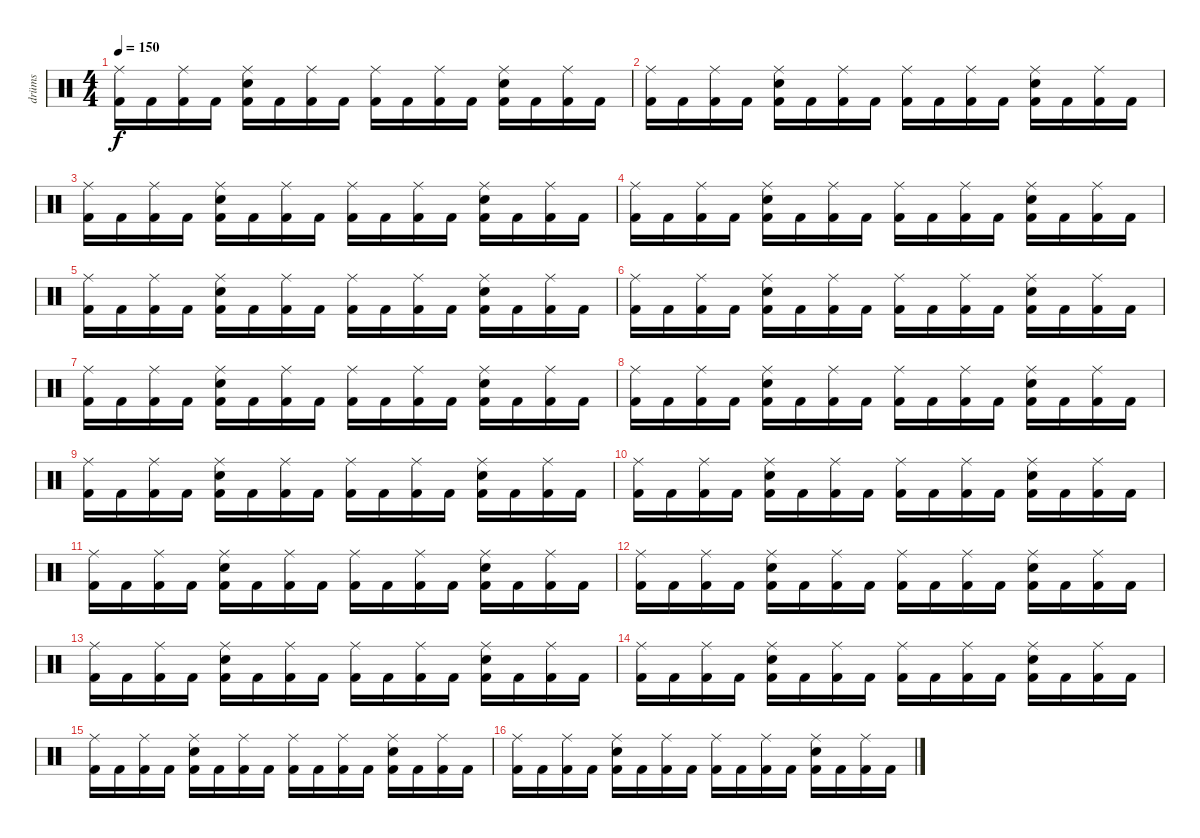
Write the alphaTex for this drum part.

\track ("drüms" "drüms") {instrument percussion}
\staff {score}
\articulation defaults
\ts (4 4)
\tempo 150
\clef neutral
\ks c
("Ride (middle)" "Kick (hit) 2").16{dy f} "Kick (hit) 2".16 ("Ride (middle)" "Kick (hit) 2").16 "Kick (hit) 2".16 ("Ride (middle)" "Electric Snare (hit)" "Kick (hit) 2").16 "Kick (hit) 2".16 ("Ride (middle)" "Kick (hit) 2").16 "Kick (hit) 2".16 ("Ride (middle)" "Kick (hit) 2").16 "Kick (hit) 2".16 ("Ride (middle)" "Kick (hit) 2").16 "Kick (hit) 2".16 ("Ride (middle)" "Electric Snare (hit)" "Kick (hit) 2").16 "Kick (hit) 2".16 ("Ride (middle)" "Kick (hit) 2").16 "Kick (hit) 2".16 |
("Ride (middle)" "Kick (hit) 2").16 "Kick (hit) 2".16 ("Ride (middle)" "Kick (hit) 2").16 "Kick (hit) 2".16 ("Ride (middle)" "Electric Snare (hit)" "Kick (hit) 2").16 "Kick (hit) 2".16 ("Ride (middle)" "Kick (hit) 2").16 "Kick (hit) 2".16 ("Ride (middle)" "Kick (hit) 2").16 "Kick (hit) 2".16 ("Ride (middle)" "Kick (hit) 2").16 "Kick (hit) 2".16 ("Ride (middle)" "Electric Snare (hit)" "Kick (hit) 2").16 "Kick (hit) 2".16 ("Ride (middle)" "Kick (hit) 2").16 "Kick (hit) 2".16 |
("Ride (middle)" "Kick (hit) 2").16 "Kick (hit) 2".16 ("Ride (middle)" "Kick (hit) 2").16 "Kick (hit) 2".16 ("Ride (middle)" "Electric Snare (hit)" "Kick (hit) 2").16 "Kick (hit) 2".16 ("Ride (middle)" "Kick (hit) 2").16 "Kick (hit) 2".16 ("Ride (middle)" "Kick (hit) 2").16 "Kick (hit) 2".16 ("Ride (middle)" "Kick (hit) 2").16 "Kick (hit) 2".16 ("Ride (middle)" "Electric Snare (hit)" "Kick (hit) 2").16 "Kick (hit) 2".16 ("Ride (middle)" "Kick (hit) 2").16 "Kick (hit) 2".16 |
("Ride (middle)" "Kick (hit) 2").16 "Kick (hit) 2".16 ("Ride (middle)" "Kick (hit) 2").16 "Kick (hit) 2".16 ("Ride (middle)" "Electric Snare (hit)" "Kick (hit) 2").16 "Kick (hit) 2".16 ("Ride (middle)" "Kick (hit) 2").16 "Kick (hit) 2".16 ("Ride (middle)" "Kick (hit) 2").16 "Kick (hit) 2".16 ("Ride (middle)" "Kick (hit) 2").16 "Kick (hit) 2".16 ("Ride (middle)" "Electric Snare (hit)" "Kick (hit) 2").16 "Kick (hit) 2".16 ("Ride (middle)" "Kick (hit) 2").16 "Kick (hit) 2".16 |
("Ride (middle)" "Kick (hit) 2").16 "Kick (hit) 2".16 ("Ride (middle)" "Kick (hit) 2").16 "Kick (hit) 2".16 ("Ride (middle)" "Electric Snare (hit)" "Kick (hit) 2").16 "Kick (hit) 2".16 ("Ride (middle)" "Kick (hit) 2").16 "Kick (hit) 2".16 ("Ride (middle)" "Kick (hit) 2").16 "Kick (hit) 2".16 ("Ride (middle)" "Kick (hit) 2").16 "Kick (hit) 2".16 ("Ride (middle)" "Electric Snare (hit)" "Kick (hit) 2").16 "Kick (hit) 2".16 ("Ride (middle)" "Kick (hit) 2").16 "Kick (hit) 2".16 |
("Ride (middle)" "Kick (hit) 2").16 "Kick (hit) 2".16 ("Ride (middle)" "Kick (hit) 2").16 "Kick (hit) 2".16 ("Ride (middle)" "Electric Snare (hit)" "Kick (hit) 2").16 "Kick (hit) 2".16 ("Ride (middle)" "Kick (hit) 2").16 "Kick (hit) 2".16 ("Ride (middle)" "Kick (hit) 2").16 "Kick (hit) 2".16 ("Ride (middle)" "Kick (hit) 2").16 "Kick (hit) 2".16 ("Ride (middle)" "Electric Snare (hit)" "Kick (hit) 2").16 "Kick (hit) 2".16 ("Ride (middle)" "Kick (hit) 2").16 "Kick (hit) 2".16 |
("Ride (middle)" "Kick (hit) 2").16 "Kick (hit) 2".16 ("Ride (middle)" "Kick (hit) 2").16 "Kick (hit) 2".16 ("Ride (middle)" "Electric Snare (hit)" "Kick (hit) 2").16 "Kick (hit) 2".16 ("Ride (middle)" "Kick (hit) 2").16 "Kick (hit) 2".16 ("Ride (middle)" "Kick (hit) 2").16 "Kick (hit) 2".16 ("Ride (middle)" "Kick (hit) 2").16 "Kick (hit) 2".16 ("Ride (middle)" "Electric Snare (hit)" "Kick (hit) 2").16 "Kick (hit) 2".16 ("Ride (middle)" "Kick (hit) 2").16 "Kick (hit) 2".16 |
("Ride (middle)" "Kick (hit) 2").16 "Kick (hit) 2".16 ("Ride (middle)" "Kick (hit) 2").16 "Kick (hit) 2".16 ("Ride (middle)" "Electric Snare (hit)" "Kick (hit) 2").16 "Kick (hit) 2".16 ("Ride (middle)" "Kick (hit) 2").16 "Kick (hit) 2".16 ("Ride (middle)" "Kick (hit) 2").16 "Kick (hit) 2".16 ("Ride (middle)" "Kick (hit) 2").16 "Kick (hit) 2".16 ("Ride (middle)" "Electric Snare (hit)" "Kick (hit) 2").16 "Kick (hit) 2".16 ("Ride (middle)" "Kick (hit) 2").16 "Kick (hit) 2".16 |
("Ride (middle)" "Kick (hit) 2").16 "Kick (hit) 2".16 ("Ride (middle)" "Kick (hit) 2").16 "Kick (hit) 2".16 ("Ride (middle)" "Electric Snare (hit)" "Kick (hit) 2").16 "Kick (hit) 2".16 ("Ride (middle)" "Kick (hit) 2").16 "Kick (hit) 2".16 ("Ride (middle)" "Kick (hit) 2").16 "Kick (hit) 2".16 ("Ride (middle)" "Kick (hit) 2").16 "Kick (hit) 2".16 ("Ride (middle)" "Electric Snare (hit)" "Kick (hit) 2").16 "Kick (hit) 2".16 ("Ride (middle)" "Kick (hit) 2").16 "Kick (hit) 2".16 |
("Ride (middle)" "Kick (hit) 2").16 "Kick (hit) 2".16 ("Ride (middle)" "Kick (hit) 2").16 "Kick (hit) 2".16 ("Ride (middle)" "Electric Snare (hit)" "Kick (hit) 2").16 "Kick (hit) 2".16 ("Ride (middle)" "Kick (hit) 2").16 "Kick (hit) 2".16 ("Ride (middle)" "Kick (hit) 2").16 "Kick (hit) 2".16 ("Ride (middle)" "Kick (hit) 2").16 "Kick (hit) 2".16 ("Ride (middle)" "Electric Snare (hit)" "Kick (hit) 2").16 "Kick (hit) 2".16 ("Ride (middle)" "Kick (hit) 2").16 "Kick (hit) 2".16 |
("Ride (middle)" "Kick (hit) 2").16 "Kick (hit) 2".16 ("Ride (middle)" "Kick (hit) 2").16 "Kick (hit) 2".16 ("Ride (middle)" "Electric Snare (hit)" "Kick (hit) 2").16 "Kick (hit) 2".16 ("Ride (middle)" "Kick (hit) 2").16 "Kick (hit) 2".16 ("Ride (middle)" "Kick (hit) 2").16 "Kick (hit) 2".16 ("Ride (middle)" "Kick (hit) 2").16 "Kick (hit) 2".16 ("Ride (middle)" "Electric Snare (hit)" "Kick (hit) 2").16 "Kick (hit) 2".16 ("Ride (middle)" "Kick (hit) 2").16 "Kick (hit) 2".16 |
("Ride (middle)" "Kick (hit) 2").16 "Kick (hit) 2".16 ("Ride (middle)" "Kick (hit) 2").16 "Kick (hit) 2".16 ("Ride (middle)" "Electric Snare (hit)" "Kick (hit) 2").16 "Kick (hit) 2".16 ("Ride (middle)" "Kick (hit) 2").16 "Kick (hit) 2".16 ("Ride (middle)" "Kick (hit) 2").16 "Kick (hit) 2".16 ("Ride (middle)" "Kick (hit) 2").16 "Kick (hit) 2".16 ("Ride (middle)" "Electric Snare (hit)" "Kick (hit) 2").16 "Kick (hit) 2".16 ("Ride (middle)" "Kick (hit) 2").16 "Kick (hit) 2".16 |
("Ride (middle)" "Kick (hit) 2").16 "Kick (hit) 2".16 ("Ride (middle)" "Kick (hit) 2").16 "Kick (hit) 2".16 ("Ride (middle)" "Electric Snare (hit)" "Kick (hit) 2").16 "Kick (hit) 2".16 ("Ride (middle)" "Kick (hit) 2").16 "Kick (hit) 2".16 ("Ride (middle)" "Kick (hit) 2").16 "Kick (hit) 2".16 ("Ride (middle)" "Kick (hit) 2").16 "Kick (hit) 2".16 ("Ride (middle)" "Electric Snare (hit)" "Kick (hit) 2").16 "Kick (hit) 2".16 ("Ride (middle)" "Kick (hit) 2").16 "Kick (hit) 2".16 |
("Ride (middle)" "Kick (hit) 2").16 "Kick (hit) 2".16 ("Ride (middle)" "Kick (hit) 2").16 "Kick (hit) 2".16 ("Ride (middle)" "Electric Snare (hit)" "Kick (hit) 2").16 "Kick (hit) 2".16 ("Ride (middle)" "Kick (hit) 2").16 "Kick (hit) 2".16 ("Ride (middle)" "Kick (hit) 2").16 "Kick (hit) 2".16 ("Ride (middle)" "Kick (hit) 2").16 "Kick (hit) 2".16 ("Ride (middle)" "Electric Snare (hit)" "Kick (hit) 2").16 "Kick (hit) 2".16 ("Ride (middle)" "Kick (hit) 2").16 "Kick (hit) 2".16 |
("Ride (middle)" "Kick (hit) 2").16 "Kick (hit) 2".16 ("Ride (middle)" "Kick (hit) 2").16 "Kick (hit) 2".16 ("Ride (middle)" "Electric Snare (hit)" "Kick (hit) 2").16 "Kick (hit) 2".16 ("Ride (middle)" "Kick (hit) 2").16 "Kick (hit) 2".16 ("Ride (middle)" "Kick (hit) 2").16 "Kick (hit) 2".16 ("Ride (middle)" "Kick (hit) 2").16 "Kick (hit) 2".16 ("Ride (middle)" "Electric Snare (hit)" "Kick (hit) 2").16 "Kick (hit) 2".16 ("Ride (middle)" "Kick (hit) 2").16 "Kick (hit) 2".16 |
("Ride (middle)" "Kick (hit) 2").16 "Kick (hit) 2".16 ("Ride (middle)" "Kick (hit) 2").16 "Kick (hit) 2".16 ("Ride (middle)" "Electric Snare (hit)" "Kick (hit) 2").16 "Kick (hit) 2".16 ("Ride (middle)" "Kick (hit) 2").16 "Kick (hit) 2".16 ("Ride (middle)" "Kick (hit) 2").16 "Kick (hit) 2".16 ("Ride (middle)" "Kick (hit) 2").16 "Kick (hit) 2".16 ("Ride (middle)" "Electric Snare (hit)" "Kick (hit) 2").16 "Kick (hit) 2".16 ("Ride (middle)" "Kick (hit) 2").16 "Kick (hit) 2".16
